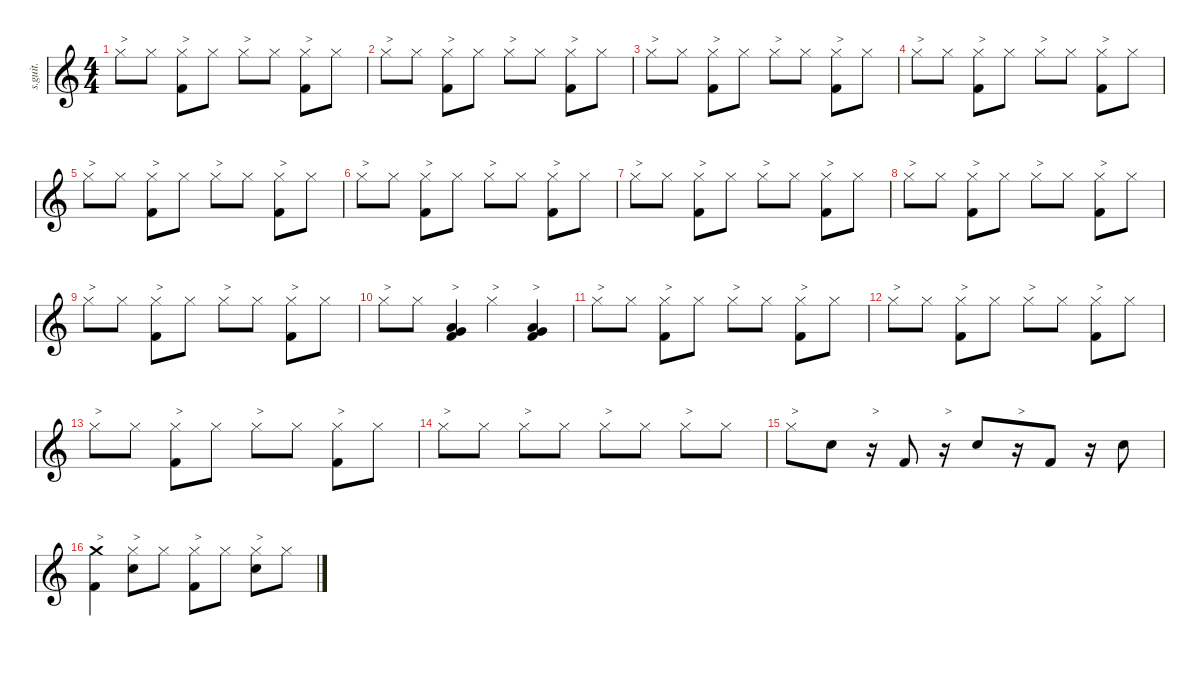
\defaultSystemsLayout 4
\hideDynamics
\bracketExtendMode nobrackets
\track ("Chris Slade" "s.guit.") {instrument percussion}
\staff {score}
\articulation defaults
\ts (4 4)
\tempo (134 hide)
\clef g2
\ks c "Hi-Hat (closed)".8{txt ">" lyrics (0 "") lyrics (1 "") lyrics (2 "") lyrics (3 "") lyrics (4 "") dy ff} "Hi-Hat (closed)".8{lyrics (0 "") lyrics (1 "") lyrics (2 "") lyrics (3 "") lyrics (4 "") dy mf}
("Hi-Hat (closed)" "Kick (hit) 2").8{txt ">" lyrics (0 "") lyrics (1 "") lyrics (2 "") lyrics (3 "") lyrics (4 "") dy f} "Hi-Hat (closed)".8{lyrics (0 "") lyrics (1 "") lyrics (2 "") lyrics (3 "") lyrics (4 "") dy mf} "Hi-Hat (closed)".8{txt ">" lyrics (0 "") lyrics (1 "") lyrics (2 "") lyrics (3 "") lyrics (4 "") dy ff} "Hi-Hat (closed)".8{lyrics (0 "") lyrics (1 "") lyrics (2 "") lyrics (3 "") lyrics (4 "") dy mf} ("Hi-Hat (closed)" "Kick (hit) 2").8{txt ">" lyrics (0 "") lyrics (1 "") lyrics (2 "") lyrics (3 "") lyrics (4 "") dy f} "Hi-Hat (closed)".8{lyrics (0 "") lyrics (1 "") lyrics (2 "") lyrics (3 "") lyrics (4 "") dy mf} |
"Hi-Hat (closed)".8{txt ">" lyrics (0 "") lyrics (1 "") lyrics (2 "") lyrics (3 "") lyrics (4 "") dy ff} "Hi-Hat (closed)".8{lyrics (0 "") lyrics (1 "") lyrics (2 "") lyrics (3 "") lyrics (4 "") dy mf} ("Hi-Hat (closed)" "Kick (hit) 2").8{txt ">" lyrics (0 "") lyrics (1 "") lyrics (2 "") lyrics (3 "") lyrics (4 "") dy f} "Hi-Hat (closed)".8{lyrics (0 "") lyrics (1 "") lyrics (2 "") lyrics (3 "") lyrics (4 "") dy mf} "Hi-Hat (closed)".8{txt ">" lyrics (0 "") lyrics (1 "") lyrics (2 "") lyrics (3 "") lyrics (4 "") dy ff} "Hi-Hat (closed)".8{lyrics (0 "") lyrics (1 "") lyrics (2 "") lyrics (3 "") lyrics (4 "") dy mf} ("Hi-Hat (closed)" "Kick (hit) 2").8{txt ">" lyrics (0 "") lyrics (1 "") lyrics (2 "") lyrics (3 "") lyrics (4 "") dy f} "Hi-Hat (closed)".8{lyrics (0 "") lyrics (1 "") lyrics (2 "") lyrics (3 "") lyrics (4 "") dy mf} |
"Hi-Hat (closed)".8{txt ">" lyrics (0 "") lyrics (1 "") lyrics (2 "") lyrics (3 "") lyrics (4 "") dy ff} "Hi-Hat (closed)".8{lyrics (0 "") lyrics (1 "") lyrics (2 "") lyrics (3 "") lyrics (4 "") dy mf} ("Hi-Hat (closed)" "Kick (hit) 2").8{txt ">" lyrics (0 "") lyrics (1 "") lyrics (2 "") lyrics (3 "") lyrics (4 "") dy f} "Hi-Hat (closed)".8{lyrics (0 "") lyrics (1 "") lyrics (2 "") lyrics (3 "") lyrics (4 "") dy mf} "Hi-Hat (closed)".8{txt ">" lyrics (0 "") lyrics (1 "") lyrics (2 "") lyrics (3 "") lyrics (4 "") dy ff} "Hi-Hat (closed)".8{lyrics (0 "") lyrics (1 "") lyrics (2 "") lyrics (3 "") lyrics (4 "") dy mf} ("Hi-Hat (closed)" "Kick (hit) 2").8{txt ">" lyrics (0 "") lyrics (1 "") lyrics (2 "") lyrics (3 "") lyrics (4 "") dy f} "Hi-Hat (closed)".8{lyrics (0 "") lyrics (1 "") lyrics (2 "") lyrics (3 "") lyrics (4 "") dy mf} |
"Hi-Hat (closed)".8{txt ">" lyrics (0 "") lyrics (1 "") lyrics (2 "") lyrics (3 "") lyrics (4 "") dy ff} "Hi-Hat (closed)".8{lyrics (0 "") lyrics (1 "") lyrics (2 "") lyrics (3 "") lyrics (4 "") dy mf} ("Hi-Hat (closed)" "Kick (hit) 2").8{txt ">" lyrics (0 "") lyrics (1 "") lyrics (2 "") lyrics (3 "") lyrics (4 "") dy f} "Hi-Hat (closed)".8{lyrics (0 "") lyrics (1 "") lyrics (2 "") lyrics (3 "") lyrics (4 "") dy mf} "Hi-Hat (closed)".8{txt ">" lyrics (0 "") lyrics (1 "") lyrics (2 "") lyrics (3 "") lyrics (4 "") dy ff} "Hi-Hat (closed)".8{lyrics (0 "") lyrics (1 "") lyrics (2 "") lyrics (3 "") lyrics (4 "") dy mf} ("Hi-Hat (closed)" "Kick (hit) 2").8{txt ">" lyrics (0 "") lyrics (1 "") lyrics (2 "") lyrics (3 "") lyrics (4 "") dy f} "Hi-Hat (closed)".8{lyrics (0 "") lyrics (1 "") lyrics (2 "") lyrics (3 "") lyrics (4 "") dy mf} |
"Hi-Hat (closed)".8{txt ">" lyrics (0 "") lyrics (1 "") lyrics (2 "") lyrics (3 "") lyrics (4 "") dy ff} "Hi-Hat (closed)".8{lyrics (0 "") lyrics (1 "") lyrics (2 "") lyrics (3 "") lyrics (4 "") dy mf} ("Hi-Hat (closed)" "Kick (hit) 2").8{txt ">" lyrics (0 "") lyrics (1 "") lyrics (2 "") lyrics (3 "") lyrics (4 "") dy f} "Hi-Hat (closed)".8{lyrics (0 "") lyrics (1 "") lyrics (2 "") lyrics (3 "") lyrics (4 "") dy mf} "Hi-Hat (closed)".8{txt ">" lyrics (0 "") lyrics (1 "") lyrics (2 "") lyrics (3 "") lyrics (4 "") dy ff} "Hi-Hat (closed)".8{lyrics (0 "") lyrics (1 "") lyrics (2 "") lyrics (3 "") lyrics (4 "") dy mf} ("Hi-Hat (closed)" "Kick (hit) 2").8{txt ">" lyrics (0 "") lyrics (1 "") lyrics (2 "") lyrics (3 "") lyrics (4 "") dy f} "Hi-Hat (closed)".8{lyrics (0 "") lyrics (1 "") lyrics (2 "") lyrics (3 "") lyrics (4 "") dy mf} |
"Hi-Hat (closed)".8{txt ">" lyrics (0 "") lyrics (1 "") lyrics (2 "") lyrics (3 "") lyrics (4 "") dy ff} "Hi-Hat (closed)".8{lyrics (0 "") lyrics (1 "") lyrics (2 "") lyrics (3 "") lyrics (4 "") dy mf} ("Hi-Hat (closed)" "Kick (hit) 2").8{txt ">" lyrics (0 "") lyrics (1 "") lyrics (2 "") lyrics (3 "") lyrics (4 "") dy f} "Hi-Hat (closed)".8{lyrics (0 "") lyrics (1 "") lyrics (2 "") lyrics (3 "") lyrics (4 "") dy mf} "Hi-Hat (closed)".8{txt ">" lyrics (0 "") lyrics (1 "") lyrics (2 "") lyrics (3 "") lyrics (4 "") dy ff} "Hi-Hat (closed)".8{lyrics (0 "") lyrics (1 "") lyrics (2 "") lyrics (3 "") lyrics (4 "") dy mf} ("Hi-Hat (closed)" "Kick (hit) 2").8{txt ">" lyrics (0 "") lyrics (1 "") lyrics (2 "") lyrics (3 "") lyrics (4 "") dy f} "Hi-Hat (closed)".8{lyrics (0 "") lyrics (1 "") lyrics (2 "") lyrics (3 "") lyrics (4 "") dy mf} |
"Hi-Hat (closed)".8{txt ">" lyrics (0 "") lyrics (1 "") lyrics (2 "") lyrics (3 "") lyrics (4 "") dy ff} "Hi-Hat (closed)".8{lyrics (0 "") lyrics (1 "") lyrics (2 "") lyrics (3 "") lyrics (4 "") dy mf} ("Hi-Hat (closed)" "Kick (hit) 2").8{txt ">" lyrics (0 "") lyrics (1 "") lyrics (2 "") lyrics (3 "") lyrics (4 "") dy f} "Hi-Hat (closed)".8{lyrics (0 "") lyrics (1 "") lyrics (2 "") lyrics (3 "") lyrics (4 "") dy mf} "Hi-Hat (closed)".8{txt ">" lyrics (0 "") lyrics (1 "") lyrics (2 "") lyrics (3 "") lyrics (4 "") dy ff} "Hi-Hat (closed)".8{lyrics (0 "") lyrics (1 "") lyrics (2 "") lyrics (3 "") lyrics (4 "") dy mf} ("Hi-Hat (closed)" "Kick (hit) 2").8{txt ">" lyrics (0 "") lyrics (1 "") lyrics (2 "") lyrics (3 "") lyrics (4 "") dy f} "Hi-Hat (closed)".8{lyrics (0 "") lyrics (1 "") lyrics (2 "") lyrics (3 "") lyrics (4 "") dy mf} |
"Hi-Hat (closed)".8{txt ">" lyrics (0 "") lyrics (1 "") lyrics (2 "") lyrics (3 "") lyrics (4 "") dy ff} "Hi-Hat (closed)".8{lyrics (0 "") lyrics (1 "") lyrics (2 "") lyrics (3 "") lyrics (4 "") dy mf} ("Hi-Hat (closed)" "Kick (hit) 2").8{txt ">" lyrics (0 "") lyrics (1 "") lyrics (2 "") lyrics (3 "") lyrics (4 "") dy f} "Hi-Hat (closed)".8{lyrics (0 "") lyrics (1 "") lyrics (2 "") lyrics (3 "") lyrics (4 "") dy mf} "Hi-Hat (closed)".8{txt ">" lyrics (0 "") lyrics (1 "") lyrics (2 "") lyrics (3 "") lyrics (4 "") dy ff} "Hi-Hat (closed)".8{lyrics (0 "") lyrics (1 "") lyrics (2 "") lyrics (3 "") lyrics (4 "") dy mf} ("Hi-Hat (closed)" "Kick (hit) 2").8{txt ">" lyrics (0 "") lyrics (1 "") lyrics (2 "") lyrics (3 "") lyrics (4 "") dy f} "Hi-Hat (closed)".8{lyrics (0 "") lyrics (1 "") lyrics (2 "") lyrics (3 "") lyrics (4 "") dy mf} |
"Hi-Hat (closed)".8{txt ">" lyrics (0 "") lyrics (1 "") lyrics (2 "") lyrics (3 "") lyrics (4 "") dy ff} "Hi-Hat (closed)".8{lyrics (0 "") lyrics (1 "") lyrics (2 "") lyrics (3 "") lyrics (4 "") dy mf} ("Hi-Hat (closed)" "Kick (hit) 2").8{txt ">" lyrics (0 "") lyrics (1 "") lyrics (2 "") lyrics (3 "") lyrics (4 "") dy f} "Hi-Hat (closed)".8{lyrics (0 "") lyrics (1 "") lyrics (2 "") lyrics (3 "") lyrics (4 "") dy mf} "Hi-Hat (closed)".8{txt ">" lyrics (0 "") lyrics (1 "") lyrics (2 "") lyrics (3 "") lyrics (4 "") dy ff} "Hi-Hat (closed)".8{lyrics (0 "") lyrics (1 "") lyrics (2 "") lyrics (3 "") lyrics (4 "") dy mf} ("Hi-Hat (closed)" "Kick (hit) 2").8{txt ">" lyrics (0 "") lyrics (1 "") lyrics (2 "") lyrics (3 "") lyrics (4 "") dy f} "Hi-Hat (closed)".8{lyrics (0 "") lyrics (1 "") lyrics (2 "") lyrics (3 "") lyrics (4 "") dy mf} |
"Hi-Hat (closed)".8{txt ">" lyrics (0 "") lyrics (1 "") lyrics (2 "") lyrics (3 "") lyrics (4 "") dy ff} "Hi-Hat (closed)".8{lyrics (0 "") lyrics (1 "") lyrics (2 "") lyrics (3 "") lyrics (4 "") dy mf} ("Very Low Tom (hit)" "Low Floor Tom (hit)" "Kick (hit) 2").4{txt ">" lyrics (0 "") lyrics (1 "") lyrics (2 "") lyrics (3 "") lyrics (4 "") dy ff} "Hi-Hat (closed)".4{txt ">" lyrics (0 "") lyrics (1 "") lyrics (2 "") lyrics (3 "") lyrics (4 "")} ("Very Low Tom (hit)" "Low Floor Tom (hit)" "Kick (hit) 2").4{txt ">" lyrics (0 "") lyrics (1 "") lyrics (2 "") lyrics (3 "") lyrics (4 "")} |
"Hi-Hat (closed)".8{txt ">" lyrics (0 "") lyrics (1 "") lyrics (2 "") lyrics (3 "") lyrics (4 "")} "Hi-Hat (closed)".8{lyrics (0 "") lyrics (1 "") lyrics (2 "") lyrics (3 "") lyrics (4 "") dy mf} ("Hi-Hat (closed)" "Kick (hit) 2").8{txt ">" lyrics (0 "") lyrics (1 "") lyrics (2 "") lyrics (3 "") lyrics (4 "") dy f} "Hi-Hat (closed)".8{lyrics (0 "") lyrics (1 "") lyrics (2 "") lyrics (3 "") lyrics (4 "") dy mf} "Hi-Hat (closed)".8{txt ">" lyrics (0 "") lyrics (1 "") lyrics (2 "") lyrics (3 "") lyrics (4 "") dy ff} "Hi-Hat (closed)".8{lyrics (0 "") lyrics (1 "") lyrics (2 "") lyrics (3 "") lyrics (4 "") dy mf} ("Hi-Hat (closed)" "Kick (hit) 2").8{txt ">" lyrics (0 "") lyrics (1 "") lyrics (2 "") lyrics (3 "") lyrics (4 "") dy f} "Hi-Hat (closed)".8{lyrics (0 "") lyrics (1 "") lyrics (2 "") lyrics (3 "") lyrics (4 "") dy mf} |
"Hi-Hat (closed)".8{txt ">" lyrics (0 "") lyrics (1 "") lyrics (2 "") lyrics (3 "") lyrics (4 "") dy ff} "Hi-Hat (closed)".8{lyrics (0 "") lyrics (1 "") lyrics (2 "") lyrics (3 "") lyrics (4 "") dy mf} ("Hi-Hat (closed)" "Kick (hit) 2").8{txt ">" lyrics (0 "") lyrics (1 "") lyrics (2 "") lyrics (3 "") lyrics (4 "") dy f} "Hi-Hat (closed)".8{lyrics (0 "") lyrics (1 "") lyrics (2 "") lyrics (3 "") lyrics (4 "") dy mf} "Hi-Hat (closed)".8{txt ">" lyrics (0 "") lyrics (1 "") lyrics (2 "") lyrics (3 "") lyrics (4 "") dy ff} "Hi-Hat (closed)".8{lyrics (0 "") lyrics (1 "") lyrics (2 "") lyrics (3 "") lyrics (4 "") dy mf} ("Hi-Hat (closed)" "Kick (hit) 2").8{txt ">" lyrics (0 "") lyrics (1 "") lyrics (2 "") lyrics (3 "") lyrics (4 "") dy f} "Hi-Hat (closed)".8{lyrics (0 "") lyrics (1 "") lyrics (2 "") lyrics (3 "") lyrics (4 "") dy mf} |
"Hi-Hat (closed)".8{txt ">" lyrics (0 "") lyrics (1 "") lyrics (2 "") lyrics (3 "") lyrics (4 "") dy ff} "Hi-Hat (closed)".8{lyrics (0 "") lyrics (1 "") lyrics (2 "") lyrics (3 "") lyrics (4 "") dy mf} ("Hi-Hat (closed)" "Kick (hit) 2").8{txt ">" lyrics (0 "") lyrics (1 "") lyrics (2 "") lyrics (3 "") lyrics (4 "") dy f} "Hi-Hat (closed)".8{lyrics (0 "") lyrics (1 "") lyrics (2 "") lyrics (3 "") lyrics (4 "") dy mf} "Hi-Hat (closed)".8{txt ">" lyrics (0 "") lyrics (1 "") lyrics (2 "") lyrics (3 "") lyrics (4 "") dy ff} "Hi-Hat (closed)".8{lyrics (0 "") lyrics (1 "") lyrics (2 "") lyrics (3 "") lyrics (4 "") dy mf} ("Hi-Hat (closed)" "Kick (hit) 2").8{txt ">" lyrics (0 "") lyrics (1 "") lyrics (2 "") lyrics (3 "") lyrics (4 "") dy f} "Hi-Hat (closed)".8{lyrics (0 "") lyrics (1 "") lyrics (2 "") lyrics (3 "") lyrics (4 "") dy mf} |
"Hi-Hat (closed)".8{txt ">" lyrics (0 "") lyrics (1 "") lyrics (2 "") lyrics (3 "") lyrics (4 "") dy ff} "Hi-Hat (closed)".8{lyrics (0 "") lyrics (1 "") lyrics (2 "") lyrics (3 "") lyrics (4 "") dy mf} "Hi-Hat (closed)".8{txt ">" lyrics (0 "") lyrics (1 "") lyrics (2 "") lyrics (3 "") lyrics (4 "") dy f} "Hi-Hat (closed)".8{lyrics (0 "") lyrics (1 "") lyrics (2 "") lyrics (3 "") lyrics (4 "") dy mf} "Hi-Hat (closed)".8{txt ">" lyrics (0 "") lyrics (1 "") lyrics (2 "") lyrics (3 "") lyrics (4 "") dy ff} "Hi-Hat (closed)".8{lyrics (0 "") lyrics (1 "") lyrics (2 "") lyrics (3 "") lyrics (4 "") dy mf} "Hi-Hat (closed)".8{txt ">" lyrics (0 "") lyrics (1 "") lyrics (2 "") lyrics (3 "") lyrics (4 "") dy f} "Hi-Hat (closed)".8{lyrics (0 "") lyrics (1 "") lyrics (2 "") lyrics (3 "") lyrics (4 "") dy mf} |
"Hi-Hat (closed)".8{txt ">" lyrics (0 "") lyrics (1 "") lyrics (2 "") lyrics (3 "") lyrics (4 "") dy ff} "Snare (hit) 2".8{lyrics (0 "") lyrics (1 "") lyrics (2 "") lyrics (3 "") lyrics (4 "") dy mf} r.16{txt ">"} "Kick (hit) 2".8{lyrics (0 "") lyrics (1 "") lyrics (2 "") lyrics (3 "") lyrics (4 "")} r.16{txt ">"} "Snare (hit) 2".8{lyrics (0 "") lyrics (1 "") lyrics (2 "") lyrics (3 "") lyrics (4 "")} r.16{txt ">"} "Kick (hit) 2".8{lyrics (0 "") lyrics (1 "") lyrics (2 "") lyrics (3 "") lyrics (4 "")} r.16 "Snare (hit) 2".8{lyrics (0 "") lyrics (1 "") lyrics (2 "") lyrics (3 "") lyrics (4 "")} |
("Crash medium (hit)" "Kick (hit) 2").4{txt ">" lyrics (0 "") lyrics (1 "") lyrics (2 "") lyrics (3 "") lyrics (4 "") dy ff} ("Hi-Hat (closed)" "Snare (hit) 2").8{txt ">" lyrics (0 "") lyrics (1 "") lyrics (2 "") lyrics (3 "") lyrics (4 "") dy f} "Hi-Hat (closed)".8{lyrics (0 "") lyrics (1 "") lyrics (2 "") lyrics (3 "") lyrics (4 "") dy mf} ("Hi-Hat (closed)" "Kick (hit) 2").8{txt ">" lyrics (0 "") lyrics (1 "") lyrics (2 "") lyrics (3 "") lyrics (4 "") dy ff} "Hi-Hat (closed)".8{lyrics (0 "") lyrics (1 "") lyrics (2 "") lyrics (3 "") lyrics (4 "") dy mf} ("Hi-Hat (closed)" "Snare (hit) 2").8{txt ">" lyrics (0 "") lyrics (1 "") lyrics (2 "") lyrics (3 "") lyrics (4 "") dy f} "Hi-Hat (closed)".8{lyrics (0 "") lyrics (1 "") lyrics (2 "") lyrics (3 "") lyrics (4 "") dy mf}
